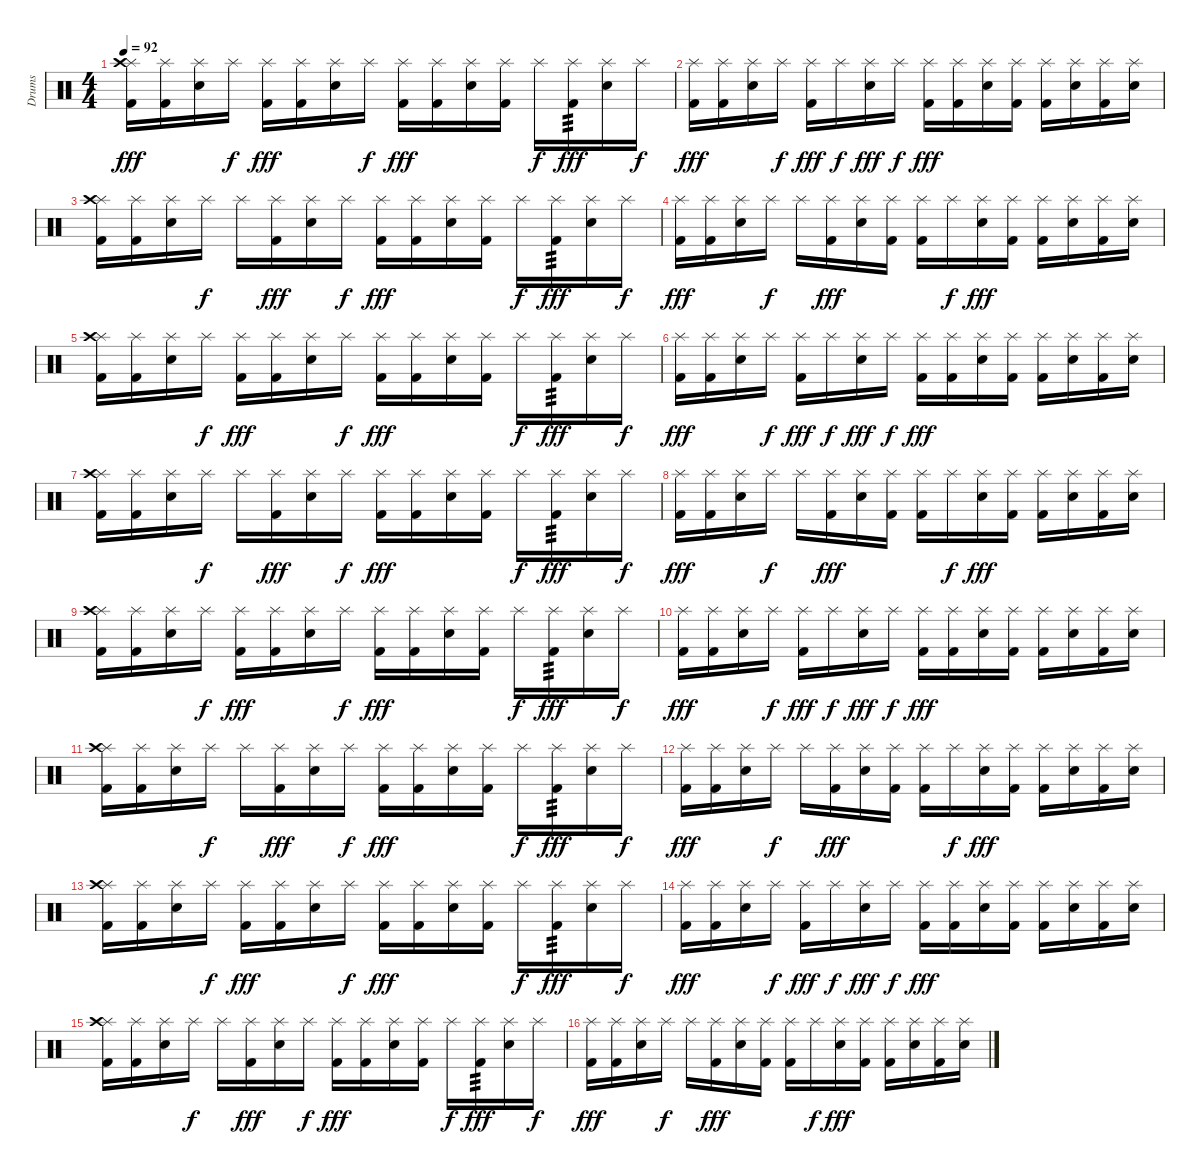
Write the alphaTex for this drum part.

\track ("Drums" "Drums") {instrument percussion}
\staff {score}
\articulation defaults
\ts (4 4)
\tempo 92
\clef neutral
\ks c
("Kick (hit) 2" "Splash (hit)" "Crash high (hit)").16{dy fff} ("Kick (hit) 2" "Splash (hit)").16 ("Electric Snare (hit)" "Splash (hit)").16 "Splash (hit)".16{dy f} ("Kick (hit) 2" "Splash (hit)").16{dy fff} ("Kick (hit) 2" "Splash (hit)").16 ("Electric Snare (hit)" "Splash (hit)").16 "Splash (hit)".16{dy f} ("Kick (hit) 2" "Splash (hit)").16{dy fff} ("Kick (hit) 2" "Splash (hit)").16 ("Electric Snare (hit)" "Splash (hit)").16 ("Kick (hit) 2" "Splash (hit)").16 "Splash (hit)".16{dy f} ("Kick (hit) 2" "Splash (hit)").16{tp 3 dy fff} ("Electric Snare (hit)" "Splash (hit)").16 "Splash (hit)".16{dy f} |
("Kick (hit) 2" "Splash (hit)").16{dy fff} ("Kick (hit) 2" "Splash (hit)").16 ("Electric Snare (hit)" "Splash (hit)").16 "Splash (hit)".16{dy f} ("Kick (hit) 2" "Splash (hit)").16{dy fff} "Splash (hit)".16{dy f} ("Electric Snare (hit)" "Splash (hit)").16{dy fff} "Splash (hit)".16{dy f} ("Kick (hit) 2" "Splash (hit)").16{dy fff} ("Kick (hit) 2" "Splash (hit)").16 ("Electric Snare (hit)" "Splash (hit)").16 ("Kick (hit) 2" "Splash (hit)").16 ("Kick (hit) 2" "Splash (hit)").16 ("Electric Snare (hit)" "Splash (hit)").16 ("Kick (hit) 2" "Splash (hit)").16 ("Electric Snare (hit)" "Splash (hit)").16 |
("Kick (hit) 2" "Splash (hit)" "Crash high (hit)").16 ("Kick (hit) 2" "Splash (hit)").16 ("Electric Snare (hit)" "Splash (hit)").16 "Splash (hit)".16{dy f} "Splash (hit)".16 ("Kick (hit) 2" "Splash (hit)").16{dy fff} ("Electric Snare (hit)" "Splash (hit)").16 "Splash (hit)".16{dy f} ("Kick (hit) 2" "Splash (hit)").16{dy fff} ("Kick (hit) 2" "Splash (hit)").16 ("Electric Snare (hit)" "Splash (hit)").16 ("Kick (hit) 2" "Splash (hit)").16 "Splash (hit)".16{dy f} ("Kick (hit) 2" "Splash (hit)").16{tp 3 dy fff} ("Electric Snare (hit)" "Splash (hit)").16 "Splash (hit)".16{dy f} |
("Kick (hit) 2" "Splash (hit)").16{dy fff} ("Kick (hit) 2" "Splash (hit)").16 ("Electric Snare (hit)" "Splash (hit)").16 "Splash (hit)".16{dy f} "Splash (hit)".16 ("Kick (hit) 2" "Splash (hit)").16{dy fff} ("Electric Snare (hit)" "Splash (hit)").16 ("Kick (hit) 2" "Splash (hit)").16 ("Kick (hit) 2" "Splash (hit)").16 "Splash (hit)".16{dy f} ("Electric Snare (hit)" "Splash (hit)").16{dy fff} ("Kick (hit) 2" "Splash (hit)").16 ("Kick (hit) 2" "Splash (hit)").16 ("Electric Snare (hit)" "Splash (hit)").16 ("Kick (hit) 2" "Splash (hit)").16 ("Electric Snare (hit)" "Splash (hit)").16 |
("Kick (hit) 2" "Splash (hit)" "Crash high (hit)").16 ("Kick (hit) 2" "Splash (hit)").16 ("Electric Snare (hit)" "Splash (hit)").16 "Splash (hit)".16{dy f} ("Kick (hit) 2" "Splash (hit)").16{dy fff} ("Kick (hit) 2" "Splash (hit)").16 ("Electric Snare (hit)" "Splash (hit)").16 "Splash (hit)".16{dy f} ("Kick (hit) 2" "Splash (hit)").16{dy fff} ("Kick (hit) 2" "Splash (hit)").16 ("Electric Snare (hit)" "Splash (hit)").16 ("Kick (hit) 2" "Splash (hit)").16 "Splash (hit)".16{dy f} ("Kick (hit) 2" "Splash (hit)").16{tp 3 dy fff} ("Electric Snare (hit)" "Splash (hit)").16 "Splash (hit)".16{dy f} |
("Kick (hit) 2" "Splash (hit)").16{dy fff} ("Kick (hit) 2" "Splash (hit)").16 ("Electric Snare (hit)" "Splash (hit)").16 "Splash (hit)".16{dy f} ("Kick (hit) 2" "Splash (hit)").16{dy fff} "Splash (hit)".16{dy f} ("Electric Snare (hit)" "Splash (hit)").16{dy fff} "Splash (hit)".16{dy f} ("Kick (hit) 2" "Splash (hit)").16{dy fff} ("Kick (hit) 2" "Splash (hit)").16 ("Electric Snare (hit)" "Splash (hit)").16 ("Kick (hit) 2" "Splash (hit)").16 ("Kick (hit) 2" "Splash (hit)").16 ("Electric Snare (hit)" "Splash (hit)").16 ("Kick (hit) 2" "Splash (hit)").16 ("Electric Snare (hit)" "Splash (hit)").16 |
("Kick (hit) 2" "Splash (hit)" "Crash high (hit)").16 ("Kick (hit) 2" "Splash (hit)").16 ("Electric Snare (hit)" "Splash (hit)").16 "Splash (hit)".16{dy f} "Splash (hit)".16 ("Kick (hit) 2" "Splash (hit)").16{dy fff} ("Electric Snare (hit)" "Splash (hit)").16 "Splash (hit)".16{dy f} ("Kick (hit) 2" "Splash (hit)").16{dy fff} ("Kick (hit) 2" "Splash (hit)").16 ("Electric Snare (hit)" "Splash (hit)").16 ("Kick (hit) 2" "Splash (hit)").16 "Splash (hit)".16{dy f} ("Kick (hit) 2" "Splash (hit)").16{tp 3 dy fff} ("Electric Snare (hit)" "Splash (hit)").16 "Splash (hit)".16{dy f} |
("Kick (hit) 2" "Splash (hit)").16{dy fff} ("Kick (hit) 2" "Splash (hit)").16 ("Electric Snare (hit)" "Splash (hit)").16 "Splash (hit)".16{dy f} "Splash (hit)".16 ("Kick (hit) 2" "Splash (hit)").16{dy fff} ("Electric Snare (hit)" "Splash (hit)").16 ("Kick (hit) 2" "Splash (hit)").16 ("Kick (hit) 2" "Splash (hit)").16 "Splash (hit)".16{dy f} ("Electric Snare (hit)" "Splash (hit)").16{dy fff} ("Kick (hit) 2" "Splash (hit)").16 ("Kick (hit) 2" "Splash (hit)").16 ("Electric Snare (hit)" "Splash (hit)").16 ("Kick (hit) 2" "Splash (hit)").16 ("Electric Snare (hit)" "Splash (hit)").16 |
("Kick (hit) 2" "Splash (hit)" "Crash high (hit)").16 ("Kick (hit) 2" "Splash (hit)").16 ("Electric Snare (hit)" "Splash (hit)").16 "Splash (hit)".16{dy f} ("Kick (hit) 2" "Splash (hit)").16{dy fff} ("Kick (hit) 2" "Splash (hit)").16 ("Electric Snare (hit)" "Splash (hit)").16 "Splash (hit)".16{dy f} ("Kick (hit) 2" "Splash (hit)").16{dy fff} ("Kick (hit) 2" "Splash (hit)").16 ("Electric Snare (hit)" "Splash (hit)").16 ("Kick (hit) 2" "Splash (hit)").16 "Splash (hit)".16{dy f} ("Kick (hit) 2" "Splash (hit)").16{tp 3 dy fff} ("Electric Snare (hit)" "Splash (hit)").16 "Splash (hit)".16{dy f} |
("Kick (hit) 2" "Splash (hit)").16{dy fff} ("Kick (hit) 2" "Splash (hit)").16 ("Electric Snare (hit)" "Splash (hit)").16 "Splash (hit)".16{dy f} ("Kick (hit) 2" "Splash (hit)").16{dy fff} "Splash (hit)".16{dy f} ("Electric Snare (hit)" "Splash (hit)").16{dy fff} "Splash (hit)".16{dy f} ("Kick (hit) 2" "Splash (hit)").16{dy fff} ("Kick (hit) 2" "Splash (hit)").16 ("Electric Snare (hit)" "Splash (hit)").16 ("Kick (hit) 2" "Splash (hit)").16 ("Kick (hit) 2" "Splash (hit)").16 ("Electric Snare (hit)" "Splash (hit)").16 ("Kick (hit) 2" "Splash (hit)").16 ("Electric Snare (hit)" "Splash (hit)").16 |
("Kick (hit) 2" "Splash (hit)" "Crash high (hit)").16 ("Kick (hit) 2" "Splash (hit)").16 ("Electric Snare (hit)" "Splash (hit)").16 "Splash (hit)".16{dy f} "Splash (hit)".16 ("Kick (hit) 2" "Splash (hit)").16{dy fff} ("Electric Snare (hit)" "Splash (hit)").16 "Splash (hit)".16{dy f} ("Kick (hit) 2" "Splash (hit)").16{dy fff} ("Kick (hit) 2" "Splash (hit)").16 ("Electric Snare (hit)" "Splash (hit)").16 ("Kick (hit) 2" "Splash (hit)").16 "Splash (hit)".16{dy f} ("Kick (hit) 2" "Splash (hit)").16{tp 3 dy fff} ("Electric Snare (hit)" "Splash (hit)").16 "Splash (hit)".16{dy f} |
("Kick (hit) 2" "Splash (hit)").16{dy fff} ("Kick (hit) 2" "Splash (hit)").16 ("Electric Snare (hit)" "Splash (hit)").16 "Splash (hit)".16{dy f} "Splash (hit)".16 ("Kick (hit) 2" "Splash (hit)").16{dy fff} ("Electric Snare (hit)" "Splash (hit)").16 ("Kick (hit) 2" "Splash (hit)").16 ("Kick (hit) 2" "Splash (hit)").16 "Splash (hit)".16{dy f} ("Electric Snare (hit)" "Splash (hit)").16{dy fff} ("Kick (hit) 2" "Splash (hit)").16 ("Kick (hit) 2" "Splash (hit)").16 ("Electric Snare (hit)" "Splash (hit)").16 ("Kick (hit) 2" "Splash (hit)").16 ("Electric Snare (hit)" "Splash (hit)").16 |
("Kick (hit) 2" "Splash (hit)" "Crash high (hit)").16 ("Kick (hit) 2" "Splash (hit)").16 ("Electric Snare (hit)" "Splash (hit)").16 "Splash (hit)".16{dy f} ("Kick (hit) 2" "Splash (hit)").16{dy fff} ("Kick (hit) 2" "Splash (hit)").16 ("Electric Snare (hit)" "Splash (hit)").16 "Splash (hit)".16{dy f} ("Kick (hit) 2" "Splash (hit)").16{dy fff} ("Kick (hit) 2" "Splash (hit)").16 ("Electric Snare (hit)" "Splash (hit)").16 ("Kick (hit) 2" "Splash (hit)").16 "Splash (hit)".16{dy f} ("Kick (hit) 2" "Splash (hit)").16{tp 3 dy fff} ("Electric Snare (hit)" "Splash (hit)").16 "Splash (hit)".16{dy f} |
("Kick (hit) 2" "Splash (hit)").16{dy fff} ("Kick (hit) 2" "Splash (hit)").16 ("Electric Snare (hit)" "Splash (hit)").16 "Splash (hit)".16{dy f} ("Kick (hit) 2" "Splash (hit)").16{dy fff} "Splash (hit)".16{dy f} ("Electric Snare (hit)" "Splash (hit)").16{dy fff} "Splash (hit)".16{dy f} ("Kick (hit) 2" "Splash (hit)").16{dy fff} ("Kick (hit) 2" "Splash (hit)").16 ("Electric Snare (hit)" "Splash (hit)").16 ("Kick (hit) 2" "Splash (hit)").16 ("Kick (hit) 2" "Splash (hit)").16 ("Electric Snare (hit)" "Splash (hit)").16 ("Kick (hit) 2" "Splash (hit)").16 ("Electric Snare (hit)" "Splash (hit)").16 |
("Kick (hit) 2" "Splash (hit)" "Crash high (hit)").16 ("Kick (hit) 2" "Splash (hit)").16 ("Electric Snare (hit)" "Splash (hit)").16 "Splash (hit)".16{dy f} "Splash (hit)".16 ("Kick (hit) 2" "Splash (hit)").16{dy fff} ("Electric Snare (hit)" "Splash (hit)").16 "Splash (hit)".16{dy f} ("Kick (hit) 2" "Splash (hit)").16{dy fff} ("Kick (hit) 2" "Splash (hit)").16 ("Electric Snare (hit)" "Splash (hit)").16 ("Kick (hit) 2" "Splash (hit)").16 "Splash (hit)".16{dy f} ("Kick (hit) 2" "Splash (hit)").16{tp 3 dy fff} ("Electric Snare (hit)" "Splash (hit)").16 "Splash (hit)".16{dy f} |
("Kick (hit) 2" "Splash (hit)").16{dy fff} ("Kick (hit) 2" "Splash (hit)").16 ("Electric Snare (hit)" "Splash (hit)").16 "Splash (hit)".16{dy f} "Splash (hit)".16 ("Kick (hit) 2" "Splash (hit)").16{dy fff} ("Electric Snare (hit)" "Splash (hit)").16 ("Kick (hit) 2" "Splash (hit)").16 ("Kick (hit) 2" "Splash (hit)").16 "Splash (hit)".16{dy f} ("Electric Snare (hit)" "Splash (hit)").16{dy fff} ("Kick (hit) 2" "Splash (hit)").16 ("Kick (hit) 2" "Splash (hit)").16 ("Electric Snare (hit)" "Splash (hit)").16 ("Kick (hit) 2" "Splash (hit)").16 ("Electric Snare (hit)" "Splash (hit)").16
